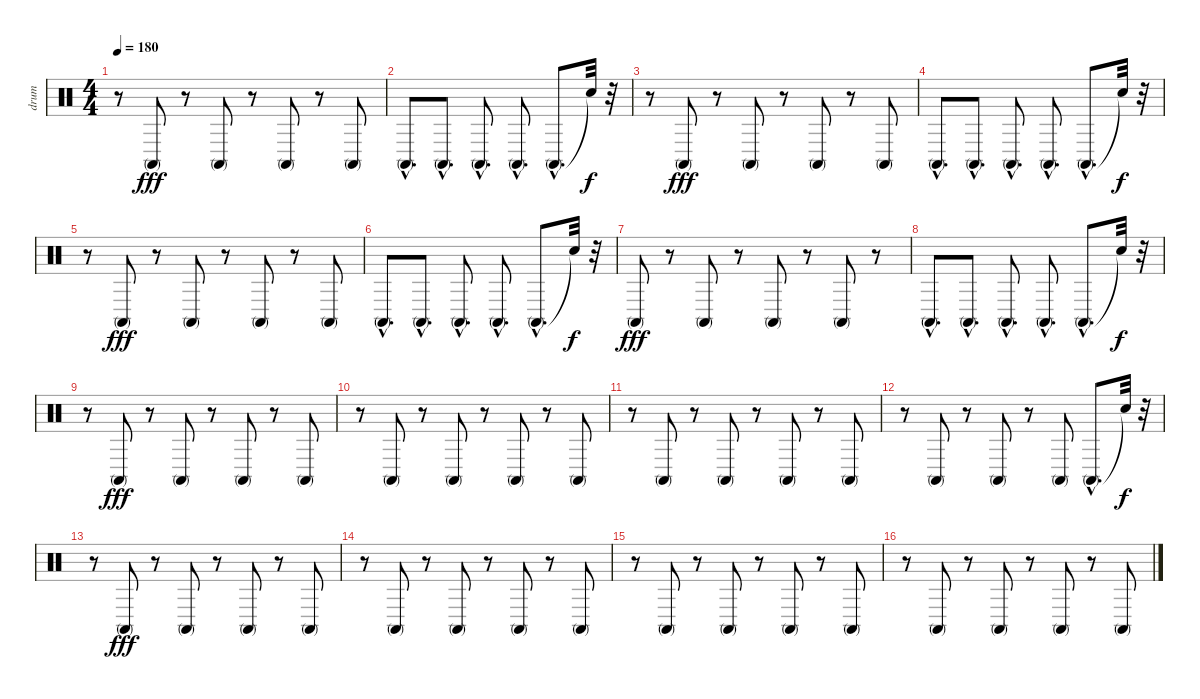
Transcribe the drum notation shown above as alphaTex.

\track ("drum" "drum") {instrument percussion}
\staff {score}
\articulation defaults
\ts (4 4)
\tempo 180
\clef neutral
\ks c
r.8{dy fff} "Conga high (mute)".8 r.8 "Conga high (mute)".8 r.8 "Conga high (mute)".8 r.8 "Conga high (mute)".8 |
"Conga high (mute)"{hac}.8{d} "Conga high (mute)"{hac}.8{d} "Conga high (mute)"{hac}.8{d} "Conga high (mute)"{hac}.8{d} "Conga high (mute)"{hac}.8{d} "Snare (hit)"{t}.32{dy f} r.32 |
r.8 "Conga high (mute)".8{dy fff} r.8 "Conga high (mute)".8 r.8 "Conga high (mute)".8 r.8 "Conga high (mute)".8 |
"Conga high (mute)"{hac}.8{d} "Conga high (mute)"{hac}.8{d} "Conga high (mute)"{hac}.8{d} "Conga high (mute)"{hac}.8{d} "Conga high (mute)"{hac}.8{d} "Snare (hit)"{t}.32{dy f} r.32 |
r.8 "Conga high (mute)".8{dy fff} r.8 "Conga high (mute)".8 r.8 "Conga high (mute)".8 r.8 "Conga high (mute)".8 |
"Conga high (mute)"{hac}.8{d} "Conga high (mute)"{hac}.8{d} "Conga high (mute)"{hac}.8{d} "Conga high (mute)"{hac}.8{d} "Conga high (mute)"{hac}.8{d} "Snare (hit)"{t}.32{dy f} r.32 |
"Conga high (mute)".8{dy fff} r.8 "Conga high (mute)".8 r.8 "Conga high (mute)".8 r.8 "Conga high (mute)".8 r.8 |
"Conga high (mute)"{hac}.8{d} "Conga high (mute)"{hac}.8{d} "Conga high (mute)"{hac}.8{d} "Conga high (mute)"{hac}.8{d} "Conga high (mute)"{hac}.8{d} "Snare (hit)"{t}.32{dy f} r.32 |
r.8 "Conga high (mute)".8{dy fff} r.8 "Conga high (mute)".8 r.8 "Conga high (mute)".8 r.8 "Conga high (mute)".8 |
r.8 "Conga high (mute)".8 r.8 "Conga high (mute)".8 r.8 "Conga high (mute)".8 r.8 "Conga high (mute)".8 |
r.8 "Conga high (mute)".8 r.8 "Conga high (mute)".8 r.8 "Conga high (mute)".8 r.8 "Conga high (mute)".8 |
r.8 "Conga high (mute)".8 r.8 "Conga high (mute)".8 r.8 "Conga high (mute)".8 "Conga high (mute)"{hac}.8{d} "Snare (hit)"{t}.32{dy f} r.32 |
r.8 "Conga high (mute)".8{dy fff} r.8 "Conga high (mute)".8 r.8 "Conga high (mute)".8 r.8 "Conga high (mute)".8 |
r.8 "Conga high (mute)".8 r.8 "Conga high (mute)".8 r.8 "Conga high (mute)".8 r.8 "Conga high (mute)".8 |
r.8 "Conga high (mute)".8 r.8 "Conga high (mute)".8 r.8 "Conga high (mute)".8 r.8 "Conga high (mute)".8 |
r.8 "Conga high (mute)".8 r.8 "Conga high (mute)".8 r.8 "Conga high (mute)".8 r.8 "Conga high (mute)".8
